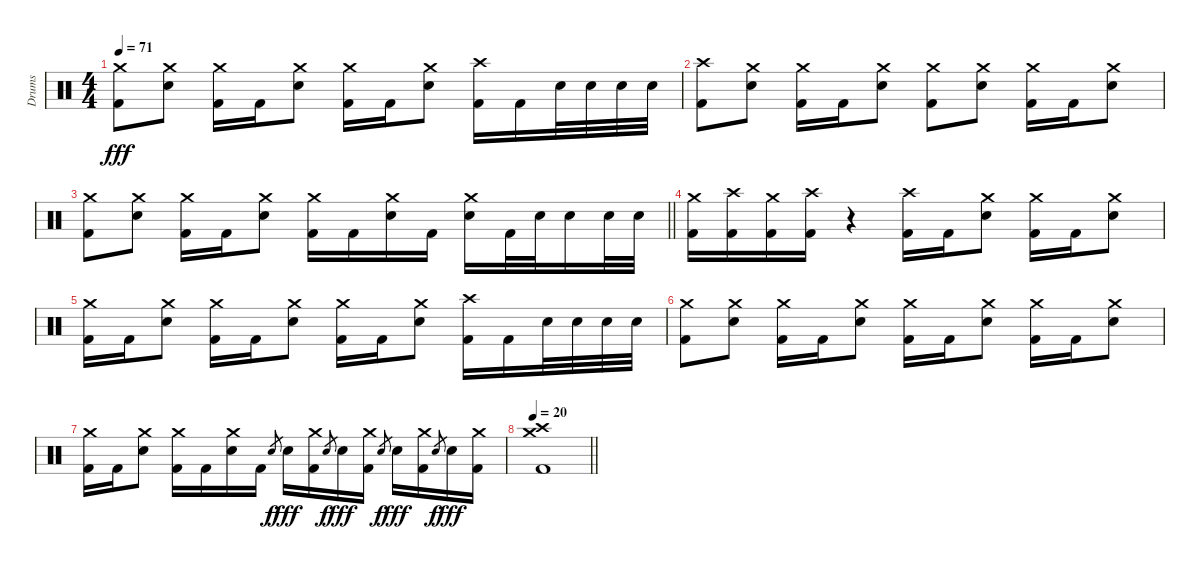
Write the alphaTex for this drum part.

\track ("Drums" "Drums") {instrument percussion}
\staff {score}
\articulation defaults
\ts (4 4)
\tempo 71
\clef neutral
\ks c
("Crash medium (hit)" "Kick (hit) 2").8{dy fff} ("Crash medium (hit)" "Snare (hit) 2").8 ("Crash medium (hit)" "Kick (hit) 2").16 "Kick (hit) 2".16 ("Crash medium (hit)" "Snare (hit) 2").8 ("Crash medium (hit)" "Kick (hit) 2").16 "Kick (hit) 2".16 ("Crash medium (hit)" "Snare (hit) 2").8 ("Crash high (hit)" "Kick (hit) 2").16 "Kick (hit) 2".16 "Snare (hit) 2".32 "Snare (hit) 2".32 "Snare (hit) 2".32 "Snare (hit) 2".32 |
("Crash high (hit)" "Kick (hit) 2").8 ("Crash medium (hit)" "Snare (hit) 2").8 ("Crash medium (hit)" "Kick (hit) 2").16 "Kick (hit) 2".16 ("Crash medium (hit)" "Snare (hit) 2").8 ("Crash medium (hit)" "Kick (hit) 2").8 ("Crash medium (hit)" "Snare (hit) 2").8 ("Crash medium (hit)" "Kick (hit) 2").16 "Kick (hit) 2".16 ("Crash medium (hit)" "Snare (hit) 2").8 |
\barLineRight lightlight
("Crash medium (hit)" "Kick (hit) 2").8 ("Crash medium (hit)" "Snare (hit) 2").8 ("Crash medium (hit)" "Kick (hit) 2").16 "Kick (hit) 2".16 ("Crash medium (hit)" "Snare (hit) 2").8 ("Crash medium (hit)" "Kick (hit) 2").16 "Kick (hit) 2".16 ("Crash medium (hit)" "Snare (hit) 2").16 "Kick (hit) 2".16 ("Crash medium (hit)" "Snare (hit) 2").16 "Kick (hit) 2".32 "Snare (hit) 2".32 "Snare (hit) 2".16 "Snare (hit) 2".32 "Snare (hit) 2".32 |
("Crash medium (hit)" "Kick (hit) 2").16 ("Crash high (hit)" "Kick (hit) 2").16 ("Crash medium (hit)" "Kick (hit) 2").16 ("Crash high (hit)" "Kick (hit) 2").16 r.4{volume 0} ("Crash high (hit)" "Kick (hit) 2").16{volume 16} "Kick (hit) 2".16 ("Crash medium (hit)" "Snare (hit) 2").8 ("Crash medium (hit)" "Kick (hit) 2").16 "Kick (hit) 2".16 ("Crash medium (hit)" "Snare (hit) 2").8 |
("Crash medium (hit)" "Kick (hit) 2").16 "Kick (hit) 2".16 ("Crash medium (hit)" "Snare (hit) 2").8 ("Crash medium (hit)" "Kick (hit) 2").16 "Kick (hit) 2".16 ("Crash medium (hit)" "Snare (hit) 2").8 ("Crash medium (hit)" "Kick (hit) 2").16 "Kick (hit) 2".16 ("Crash medium (hit)" "Snare (hit) 2").8 ("Crash high (hit)" "Kick (hit) 2").16 "Kick (hit) 2".16 "Snare (hit) 2".32 "Snare (hit) 2".32 "Snare (hit) 2".32 "Snare (hit) 2".32 |
("Crash medium (hit)" "Kick (hit) 2").8 ("Crash medium (hit)" "Snare (hit) 2").8 ("Crash medium (hit)" "Kick (hit) 2").16 "Kick (hit) 2".16 ("Crash medium (hit)" "Snare (hit) 2").8 ("Crash medium (hit)" "Kick (hit) 2").16 "Kick (hit) 2".16 ("Crash medium (hit)" "Snare (hit) 2").8 ("Crash medium (hit)" "Kick (hit) 2").16 "Kick (hit) 2".16 ("Crash medium (hit)" "Snare (hit) 2").8 |
("Crash medium (hit)" "Kick (hit) 2").16 "Kick (hit) 2".16 ("Crash medium (hit)" "Snare (hit) 2").8 ("Crash medium (hit)" "Kick (hit) 2").16 "Kick (hit) 2".16 ("Crash medium (hit)" "Snare (hit) 2").16 "Kick (hit) 2".16 "Snare (hit) 2".8{gr dy f} "Snare (hit) 2".16{dy fff} ("Crash medium (hit)" "Kick (hit) 2").16 "Snare (hit) 2".8{gr dy f} "Snare (hit) 2".16{dy fff} ("Crash medium (hit)" "Kick (hit) 2").16 "Snare (hit) 2".8{gr dy f} "Snare (hit) 2".16{dy fff} ("Crash medium (hit)" "Kick (hit) 2").16 "Snare (hit) 2".8{gr dy f} "Snare (hit) 2".16{dy fff} ("Crash medium (hit)" "Kick (hit) 2").16 |
\tempo 20
\barLineRight lightlight
("Crash high (hit)" "Crash medium (hit)" "Kick (hit) 2").1
